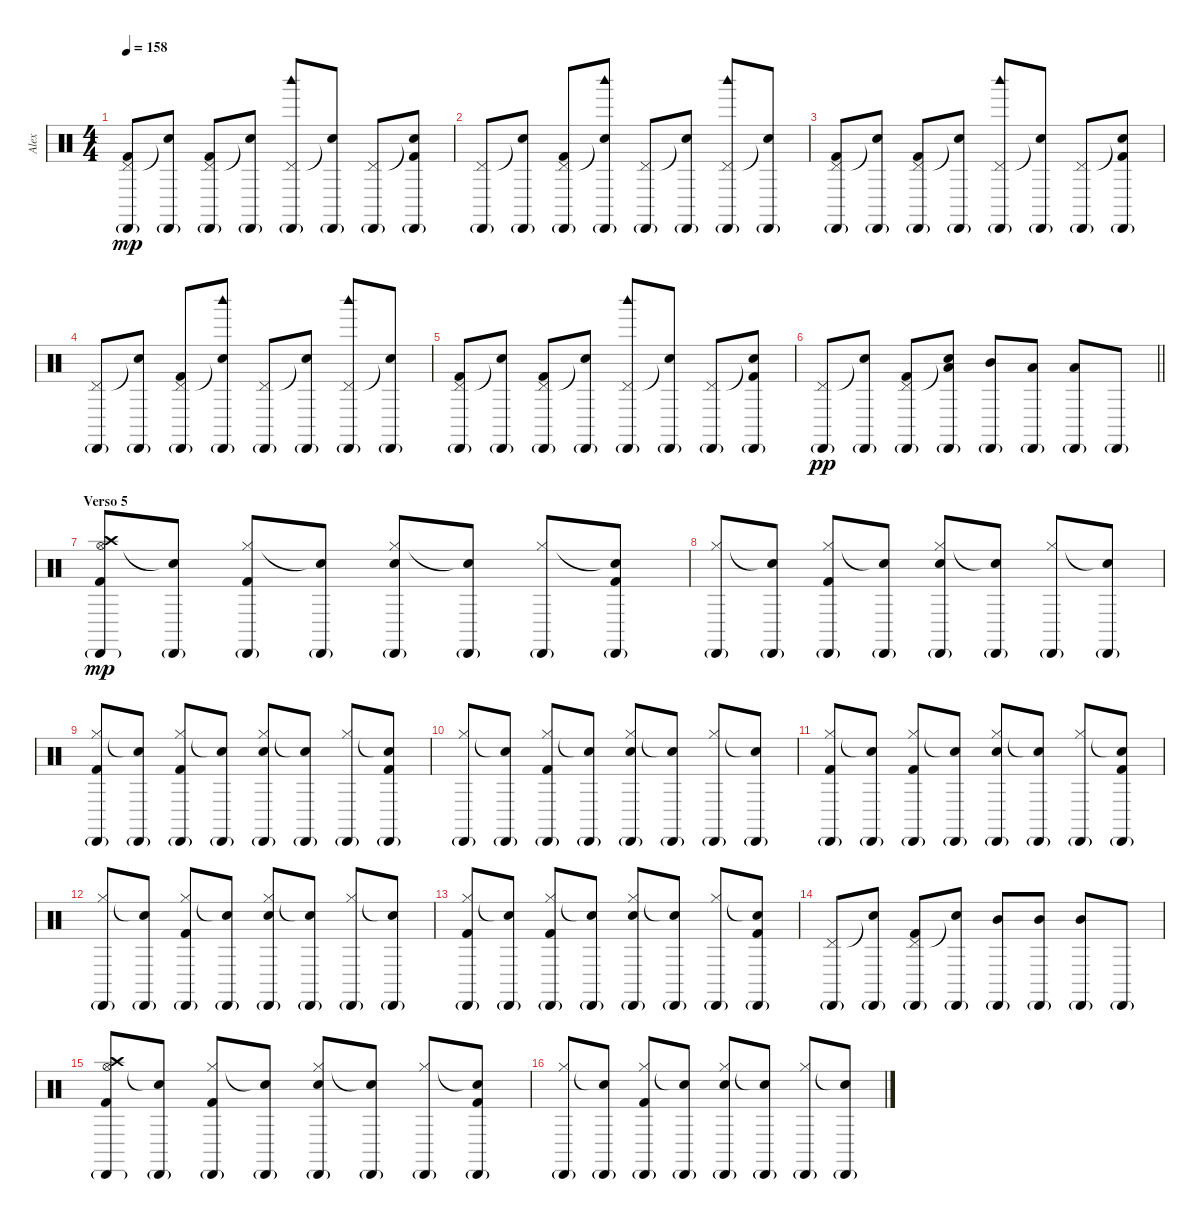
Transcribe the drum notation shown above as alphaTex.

\track ("Alex" "Alex") {instrument percussion}
\staff {score}
\articulation defaults
\ts (4 4)
\tempo 158
\clef neutral
\ks c
("Pedal Hi-Hat (hit)" "Kick (hit) 2" "Cabasa (hit)"{g}).8{dy mp} ("Snare (hit)"{t} "Cabasa (hit)"{g}).8 ("Pedal Hi-Hat (hit)" "Kick (hit) 2" "Cabasa (hit)"{g}).8 ("Snare (hit)"{t} "Cabasa (hit)"{g}).8 ("Pedal Hi-Hat (hit)" "Woodblock high (hit)" "Cabasa (hit)"{g}).8 ("Snare (hit)"{t} "Cabasa (hit)"{g}).8 ("Pedal Hi-Hat (hit)" "Cabasa (hit)"{g}).8 ("Snare (hit)"{t} "Kick (hit) 2" "Cabasa (hit)"{g}).8 |
("Pedal Hi-Hat (hit)" "Cabasa (hit)"{g}).8 ("Snare (hit)"{t} "Cabasa (hit)"{g}).8 ("Pedal Hi-Hat (hit)" "Kick (hit) 2" "Cabasa (hit)"{g}).8 ("Snare (hit)"{t} "Woodblock high (hit)" "Cabasa (hit)"{g}).8 ("Pedal Hi-Hat (hit)" "Cabasa (hit)"{g}).8 ("Snare (hit)"{t} "Cabasa (hit)"{g}).8 ("Pedal Hi-Hat (hit)" "Woodblock high (hit)" "Cabasa (hit)"{g}).8 ("Snare (hit)"{t} "Cabasa (hit)"{g}).8 |
("Pedal Hi-Hat (hit)" "Kick (hit) 2" "Cabasa (hit)"{g}).8 ("Snare (hit)"{t} "Cabasa (hit)"{g}).8 ("Pedal Hi-Hat (hit)" "Kick (hit) 2" "Cabasa (hit)"{g}).8 ("Snare (hit)"{t} "Cabasa (hit)"{g}).8 ("Pedal Hi-Hat (hit)" "Woodblock high (hit)" "Cabasa (hit)"{g}).8 ("Snare (hit)"{t} "Cabasa (hit)"{g}).8 ("Pedal Hi-Hat (hit)" "Cabasa (hit)"{g}).8 ("Snare (hit)"{t} "Kick (hit) 2" "Cabasa (hit)"{g}).8 |
("Pedal Hi-Hat (hit)" "Cabasa (hit)"{g}).8 ("Snare (hit)"{t} "Cabasa (hit)"{g}).8 ("Pedal Hi-Hat (hit)" "Kick (hit) 2" "Cabasa (hit)"{g}).8 ("Snare (hit)"{t} "Woodblock high (hit)" "Cabasa (hit)"{g}).8 ("Pedal Hi-Hat (hit)" "Cabasa (hit)"{g}).8 ("Snare (hit)"{t} "Cabasa (hit)"{g}).8 ("Pedal Hi-Hat (hit)" "Woodblock high (hit)" "Cabasa (hit)"{g}).8 ("Snare (hit)"{t} "Cabasa (hit)"{g}).8 |
("Pedal Hi-Hat (hit)" "Kick (hit) 2" "Cabasa (hit)"{g}).8 ("Snare (hit)"{t} "Cabasa (hit)"{g}).8 ("Pedal Hi-Hat (hit)" "Kick (hit) 2" "Cabasa (hit)"{g}).8 ("Snare (hit)"{t} "Cabasa (hit)"{g}).8 ("Pedal Hi-Hat (hit)" "Woodblock high (hit)" "Cabasa (hit)"{g}).8 ("Snare (hit)"{t} "Cabasa (hit)"{g}).8 ("Pedal Hi-Hat (hit)" "Cabasa (hit)"{g}).8 ("Snare (hit)"{t} "Kick (hit) 2" "Cabasa (hit)"{g}).8 |
\barLineRight lightlight
("Pedal Hi-Hat (hit)" "Cabasa (hit)"{g}).8{dy pp} ("Snare (hit)"{t} "Cabasa (hit)"{g}).8 ("Pedal Hi-Hat (hit)" "Kick (hit) 2" "Cabasa (hit)"{g}).8 ("Snare (hit)"{t} "Low Tom (hit)" "Cabasa (hit)"{g}).8 ("Mid Tom (hit)" "Cabasa (hit)"{g}).8 ("Low Tom (hit)" "Cabasa (hit)"{g}).8 ("Low Tom (hit)" "Cabasa (hit)"{g}).8 "Cabasa (hit)"{g}.8 |
\section ("" "Verso 5")
("Hi-Hat (open)" "Kick (hit) 2" "Crash high (hit)" "Cabasa (hit)"{g}).8{dy mp} ("Snare (hit)"{t} "Cabasa (hit)"{g}).8 ("Hi-Hat (closed)" "Kick (hit) 2" "Cabasa (hit)"{g}).8 ("Snare (hit)"{t} "Cabasa (hit)"{g}).8 ("Hi-Hat (closed)" "Electric Snare (hit)" "Cabasa (hit)"{g}).8 ("Snare (hit)"{t} "Cabasa (hit)"{g}).8 ("Hi-Hat (closed)" "Cabasa (hit)"{g}).8 ("Snare (hit)"{t} "Kick (hit) 2" "Cabasa (hit)"{g}).8 |
("Hi-Hat (closed)" "Cabasa (hit)"{g}).8 ("Snare (hit)"{t} "Cabasa (hit)"{g}).8 ("Hi-Hat (closed)" "Kick (hit) 2" "Cabasa (hit)"{g}).8 ("Snare (hit)"{t} "Cabasa (hit)"{g}).8 ("Hi-Hat (closed)" "Electric Snare (hit)" "Cabasa (hit)"{g}).8 ("Snare (hit)"{t} "Cabasa (hit)"{g}).8 ("Hi-Hat (closed)" "Cabasa (hit)"{g}).8 ("Snare (hit)"{t} "Cabasa (hit)"{g}).8 |
("Hi-Hat (closed)" "Kick (hit) 2" "Cabasa (hit)"{g}).8 ("Snare (hit)"{t} "Cabasa (hit)"{g}).8 ("Hi-Hat (closed)" "Kick (hit) 2" "Cabasa (hit)"{g}).8 ("Snare (hit)"{t} "Cabasa (hit)"{g}).8 ("Hi-Hat (closed)" "Electric Snare (hit)" "Cabasa (hit)"{g}).8 ("Snare (hit)"{t} "Cabasa (hit)"{g}).8 ("Hi-Hat (closed)" "Cabasa (hit)"{g}).8 ("Snare (hit)"{t} "Kick (hit) 2" "Cabasa (hit)"{g}).8 |
("Hi-Hat (closed)" "Cabasa (hit)"{g}).8 ("Snare (hit)"{t} "Cabasa (hit)"{g}).8 ("Hi-Hat (closed)" "Kick (hit) 2" "Cabasa (hit)"{g}).8 ("Snare (hit)"{t} "Cabasa (hit)"{g}).8 ("Hi-Hat (closed)" "Electric Snare (hit)" "Cabasa (hit)"{g}).8 ("Snare (hit)"{t} "Cabasa (hit)"{g}).8 ("Hi-Hat (closed)" "Cabasa (hit)"{g}).8 ("Snare (hit)"{t} "Cabasa (hit)"{g}).8 |
("Hi-Hat (closed)" "Kick (hit) 2" "Cabasa (hit)"{g}).8 ("Snare (hit)"{t} "Cabasa (hit)"{g}).8 ("Hi-Hat (closed)" "Kick (hit) 2" "Cabasa (hit)"{g}).8 ("Snare (hit)"{t} "Cabasa (hit)"{g}).8 ("Hi-Hat (closed)" "Electric Snare (hit)" "Cabasa (hit)"{g}).8 ("Snare (hit)"{t} "Cabasa (hit)"{g}).8 ("Hi-Hat (closed)" "Cabasa (hit)"{g}).8 ("Snare (hit)"{t} "Kick (hit) 2" "Cabasa (hit)"{g}).8 |
("Hi-Hat (closed)" "Cabasa (hit)"{g}).8 ("Snare (hit)"{t} "Cabasa (hit)"{g}).8 ("Hi-Hat (closed)" "Kick (hit) 2" "Cabasa (hit)"{g}).8 ("Snare (hit)"{t} "Cabasa (hit)"{g}).8 ("Hi-Hat (closed)" "Electric Snare (hit)" "Cabasa (hit)"{g}).8 ("Snare (hit)"{t} "Cabasa (hit)"{g}).8 ("Hi-Hat (closed)" "Cabasa (hit)"{g}).8 ("Snare (hit)"{t} "Cabasa (hit)"{g}).8 |
("Hi-Hat (closed)" "Kick (hit) 2" "Cabasa (hit)"{g}).8 ("Snare (hit)"{t} "Cabasa (hit)"{g}).8 ("Hi-Hat (closed)" "Kick (hit) 2" "Cabasa (hit)"{g}).8 ("Snare (hit)"{t} "Cabasa (hit)"{g}).8 ("Hi-Hat (closed)" "Electric Snare (hit)" "Cabasa (hit)"{g}).8 ("Snare (hit)"{t} "Cabasa (hit)"{g}).8 ("Hi-Hat (closed)" "Cabasa (hit)"{g}).8 ("Snare (hit)"{t} "Kick (hit) 2" "Cabasa (hit)"{g}).8 |
("Pedal Hi-Hat (hit)" "Cabasa (hit)"{g}).8 ("Snare (hit)"{t} "Cabasa (hit)"{g}).8 ("Pedal Hi-Hat (hit)" "Kick (hit) 2" "Cabasa (hit)"{g}).8 ("Snare (hit)"{t} "Cabasa (hit)"{g}).8 ("Mid Tom (hit)" "Cabasa (hit)"{g}).8 ("Mid Tom (hit)" "Cabasa (hit)"{g}).8 ("Mid Tom (hit)" "Cabasa (hit)"{g}).8 "Cabasa (hit)"{g}.8 |
("Hi-Hat (open)" "Kick (hit) 2" "Crash high (hit)" "Cabasa (hit)"{g}).8 ("Snare (hit)"{t} "Cabasa (hit)"{g}).8 ("Hi-Hat (closed)" "Kick (hit) 2" "Cabasa (hit)"{g}).8 ("Snare (hit)"{t} "Cabasa (hit)"{g}).8 ("Hi-Hat (closed)" "Electric Snare (hit)" "Cabasa (hit)"{g}).8 ("Snare (hit)"{t} "Cabasa (hit)"{g}).8 ("Hi-Hat (closed)" "Cabasa (hit)"{g}).8 ("Snare (hit)"{t} "Kick (hit) 2" "Cabasa (hit)"{g}).8 |
("Hi-Hat (closed)" "Cabasa (hit)"{g}).8 ("Snare (hit)"{t} "Cabasa (hit)"{g}).8 ("Hi-Hat (closed)" "Kick (hit) 2" "Cabasa (hit)"{g}).8 ("Snare (hit)"{t} "Cabasa (hit)"{g}).8 ("Hi-Hat (closed)" "Electric Snare (hit)" "Cabasa (hit)"{g}).8 ("Snare (hit)"{t} "Cabasa (hit)"{g}).8 ("Hi-Hat (closed)" "Cabasa (hit)"{g}).8 ("Snare (hit)"{t} "Cabasa (hit)"{g}).8
